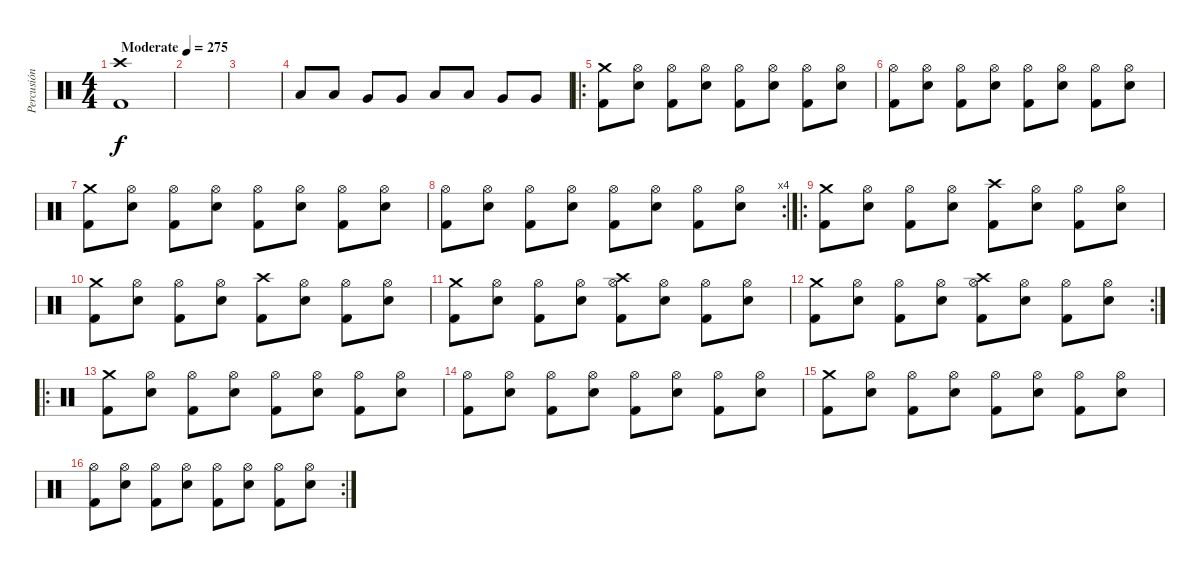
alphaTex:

\track ("Percusión" "Percusión") {instrument percussion}
\staff {score}
\articulation defaults
\ts (4 4)
\tempo (275 "Moderate")
\clef neutral
\ks c
("Crash high (hit)" "Kick (hit) 2").1{dy f} |
|
|
"Low Tom (hit)".8 "Low Tom (hit)".8 "Very Low Tom (hit)".8 "Very Low Tom (hit)".8 "Low Floor Tom (hit)".8 "Low Floor Tom (hit)".8 "Very Low Tom (hit)".8 "Very Low Tom (hit)".8 |
\ro
("Crash medium (hit)" "Kick (hit) 2").8 ("Hi-Hat (open)" "Electric Snare (hit)").8 ("Hi-Hat (open)" "Kick (hit) 2").8 ("Hi-Hat (open)" "Electric Snare (hit)").8 ("Hi-Hat (open)" "Kick (hit) 2").8 ("Hi-Hat (open)" "Electric Snare (hit)").8 ("Hi-Hat (open)" "Kick (hit) 2").8 ("Hi-Hat (open)" "Electric Snare (hit)").8 |
("Hi-Hat (open)" "Kick (hit) 2").8 ("Hi-Hat (open)" "Electric Snare (hit)").8 ("Hi-Hat (open)" "Kick (hit) 2").8 ("Hi-Hat (open)" "Electric Snare (hit)").8 ("Hi-Hat (open)" "Kick (hit) 2").8 ("Hi-Hat (open)" "Electric Snare (hit)").8 ("Hi-Hat (open)" "Kick (hit) 2").8 ("Hi-Hat (open)" "Electric Snare (hit)").8 |
("Crash medium (hit)" "Kick (hit) 2").8 ("Hi-Hat (open)" "Electric Snare (hit)").8 ("Hi-Hat (open)" "Kick (hit) 2").8 ("Hi-Hat (open)" "Electric Snare (hit)").8 ("Hi-Hat (open)" "Kick (hit) 2").8 ("Hi-Hat (open)" "Electric Snare (hit)").8 ("Hi-Hat (open)" "Kick (hit) 2").8 ("Hi-Hat (open)" "Electric Snare (hit)").8 |
\rc 4
("Hi-Hat (open)" "Kick (hit) 2").8 ("Hi-Hat (open)" "Electric Snare (hit)").8 ("Hi-Hat (open)" "Kick (hit) 2").8 ("Hi-Hat (open)" "Electric Snare (hit)").8 ("Hi-Hat (open)" "Kick (hit) 2").8 ("Hi-Hat (open)" "Electric Snare (hit)").8 ("Hi-Hat (open)" "Kick (hit) 2").8 ("Hi-Hat (open)" "Electric Snare (hit)").8 |
\ro
("Crash medium (hit)" "Kick (hit) 2").8 ("Hi-Hat (open)" "Electric Snare (hit)").8 ("Hi-Hat (open)" "Kick (hit) 2").8 ("Hi-Hat (open)" "Electric Snare (hit)").8 ("Crash high (hit)" "Kick (hit) 2").8 ("Hi-Hat (open)" "Electric Snare (hit)").8 ("Hi-Hat (open)" "Kick (hit) 2").8 ("Hi-Hat (open)" "Electric Snare (hit)").8 |
("Crash medium (hit)" "Kick (hit) 2").8 ("Hi-Hat (open)" "Electric Snare (hit)").8 ("Hi-Hat (open)" "Kick (hit) 2").8 ("Hi-Hat (open)" "Electric Snare (hit)").8 ("Crash high (hit)" "Kick (hit) 2").8 ("Hi-Hat (open)" "Electric Snare (hit)").8 ("Hi-Hat (open)" "Kick (hit) 2").8 ("Hi-Hat (open)" "Electric Snare (hit)").8 |
("Crash medium (hit)" "Kick (hit) 2").8 ("Hi-Hat (open)" "Electric Snare (hit)").8 ("Hi-Hat (open)" "Kick (hit) 2").8 ("Hi-Hat (open)" "Electric Snare (hit)").8 ("Crash high (hit)" "Hi-Hat (open)" "Kick (hit) 2").8 ("Hi-Hat (open)" "Electric Snare (hit)").8 ("Hi-Hat (open)" "Kick (hit) 2").8 ("Hi-Hat (open)" "Electric Snare (hit)").8 |
\rc 2
("Crash medium (hit)" "Kick (hit) 2").8 ("Hi-Hat (open)" "Electric Snare (hit)").8 ("Hi-Hat (open)" "Kick (hit) 2").8 ("Hi-Hat (open)" "Electric Snare (hit)").8 ("Crash high (hit)" "Hi-Hat (open)" "Kick (hit) 2").8 ("Hi-Hat (open)" "Electric Snare (hit)").8 ("Hi-Hat (open)" "Kick (hit) 2").8 ("Hi-Hat (open)" "Electric Snare (hit)").8 |
\ro
("Crash medium (hit)" "Kick (hit) 2").8 ("Hi-Hat (open)" "Electric Snare (hit)").8 ("Hi-Hat (open)" "Kick (hit) 2").8 ("Hi-Hat (open)" "Electric Snare (hit)").8 ("Hi-Hat (open)" "Kick (hit) 2").8 ("Hi-Hat (open)" "Electric Snare (hit)").8 ("Hi-Hat (open)" "Kick (hit) 2").8 ("Hi-Hat (open)" "Electric Snare (hit)").8 |
("Hi-Hat (open)" "Kick (hit) 2").8 ("Hi-Hat (open)" "Electric Snare (hit)").8 ("Hi-Hat (open)" "Kick (hit) 2").8 ("Hi-Hat (open)" "Electric Snare (hit)").8 ("Hi-Hat (open)" "Kick (hit) 2").8 ("Hi-Hat (open)" "Electric Snare (hit)").8 ("Hi-Hat (open)" "Kick (hit) 2").8 ("Hi-Hat (open)" "Electric Snare (hit)").8 |
("Crash medium (hit)" "Kick (hit) 2").8 ("Hi-Hat (open)" "Electric Snare (hit)").8 ("Hi-Hat (open)" "Kick (hit) 2").8 ("Hi-Hat (open)" "Electric Snare (hit)").8 ("Hi-Hat (open)" "Kick (hit) 2").8 ("Hi-Hat (open)" "Electric Snare (hit)").8 ("Hi-Hat (open)" "Kick (hit) 2").8 ("Hi-Hat (open)" "Electric Snare (hit)").8 |
\rc 2
("Hi-Hat (open)" "Kick (hit) 2").8 ("Hi-Hat (open)" "Electric Snare (hit)").8 ("Hi-Hat (open)" "Kick (hit) 2").8 ("Hi-Hat (open)" "Electric Snare (hit)").8 ("Hi-Hat (open)" "Kick (hit) 2").8 ("Hi-Hat (open)" "Electric Snare (hit)").8 ("Hi-Hat (open)" "Kick (hit) 2").8 ("Hi-Hat (open)" "Electric Snare (hit)").8
